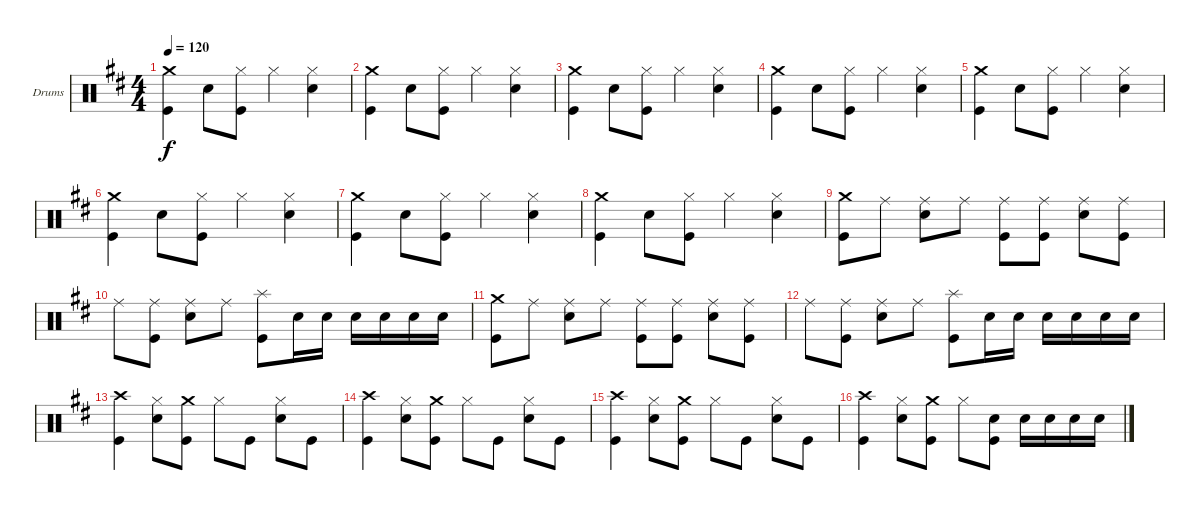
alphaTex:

\defaultSystemsLayout 4
\bracketExtendMode groupsimilarinstruments
\firstSystemTrackNameOrientation horizontal
\otherSystemsTrackNameOrientation horizontal
\track ("Drumkit" "Drums") {instrument percussion}
\staff {score}
\articulation defaults
\ts (4 4)
\tempo 120
\clef neutral
\scale
0.949559
\ks d
("Crash medium (hit)" "Kick (hit)").4{dy f} "Snare (hit) 2".8 ("Hi-Hat (closed)" "Kick (hit)").8 "Hi-Hat (closed)".4 ("Hi-Hat (closed)" "Snare (hit) 2").4 |
\scale
0.949559 ("Crash medium (hit)" "Kick (hit)").4 "Snare (hit) 2".8 ("Hi-Hat (closed)" "Kick (hit)").8 "Hi-Hat (closed)".4 ("Hi-Hat (closed)" "Snare (hit) 2").4 |
\scale
1.10088 ("Crash medium (hit)" "Kick (hit)").4 "Snare (hit) 2".8 ("Hi-Hat (closed)" "Kick (hit)").8 "Hi-Hat (closed)".4 ("Hi-Hat (closed)" "Snare (hit) 2").4 |
\scale
0.949559 ("Crash medium (hit)" "Kick (hit)").4 "Snare (hit) 2".8 ("Hi-Hat (closed)" "Kick (hit)").8 "Hi-Hat (closed)".4 ("Hi-Hat (closed)" "Snare (hit) 2").4 |
\scale
0.949559 ("Crash medium (hit)" "Kick (hit)").4 "Snare (hit) 2".8 ("Hi-Hat (closed)" "Kick (hit)").8 "Hi-Hat (closed)".4 ("Hi-Hat (closed)" "Snare (hit) 2").4 |
\scale
1.10088 ("Crash medium (hit)" "Kick (hit)").4 "Snare (hit) 2".8 ("Hi-Hat (closed)" "Kick (hit)").8 "Hi-Hat (closed)".4 ("Hi-Hat (closed)" "Snare (hit) 2").4 |
\scale
0.949559 ("Crash medium (hit)" "Kick (hit)").4 "Snare (hit) 2".8 ("Hi-Hat (closed)" "Kick (hit)").8 "Hi-Hat (closed)".4 ("Hi-Hat (closed)" "Snare (hit) 2").4 |
\scale
0.949559 ("Crash medium (hit)" "Kick (hit)").4 "Snare (hit) 2".8 ("Hi-Hat (closed)" "Kick (hit)").8 "Hi-Hat (closed)".4 ("Hi-Hat (closed)" "Snare (hit) 2").4 |
\scale
1.10088 ("Crash medium (hit)" "Kick (hit)").8 "Ride (middle)".8 ("Ride (middle)" "Snare (hit) 2").8 "Ride (middle)".8 ("Ride (middle)" "Kick (hit)").8 ("Ride (middle)" "Kick (hit)").8 ("Ride (middle)" "Snare (hit) 2").8 ("Ride (middle)" "Kick (hit)").8 |
\scale
0.949559 "Ride (middle)".8 ("Ride (middle)" "Kick (hit)").8 ("Ride (middle)" "Snare (hit) 2").8 "Ride (middle)".8 ("Splash (hit)" "Kick (hit)").8 "Snare (hit) 2".16 "Snare (hit) 2".16 "Snare (hit) 2".16 "Snare (hit) 2".16 "Snare (hit) 2".16 "Snare (hit) 2".16 |
\scale
0.949559 ("Crash medium (hit)" "Kick (hit)").8 "Ride (middle)".8 ("Ride (middle)" "Snare (hit) 2").8 "Ride (middle)".8 ("Ride (middle)" "Kick (hit)").8 ("Ride (middle)" "Kick (hit)").8 ("Ride (middle)" "Snare (hit) 2").8 ("Ride (middle)" "Kick (hit)").8 |
\scale
1.10088 "Ride (middle)".8 ("Ride (middle)" "Kick (hit)").8 ("Ride (middle)" "Snare (hit) 2").8 "Ride (middle)".8 ("Splash (hit)" "Kick (hit)").8 "Snare (hit) 2".16 "Snare (hit) 2".16 "Snare (hit) 2".16 "Snare (hit) 2".16 "Snare (hit) 2".16 "Snare (hit) 2".16 |
\scale
0.949559 ("Crash high (hit)" "Kick (hit)").4 ("Hi-Hat (closed)" "Snare (hit) 2").8 ("Crash medium (hit)" "Kick (hit)").8 "Hi-Hat (closed)".8 "Kick (hit)".8 ("Hi-Hat (closed)" "Snare (hit) 2").8 "Kick (hit)".8 |
\scale
0.949559 ("Crash high (hit)" "Kick (hit)").4 ("Hi-Hat (closed)" "Snare (hit) 2").8 ("Crash medium (hit)" "Kick (hit)").8 "Hi-Hat (closed)".8 "Kick (hit)".8 ("Hi-Hat (closed)" "Snare (hit) 2").8 "Kick (hit)".8 |
\scale
1.10088 ("Crash high (hit)" "Kick (hit)").4 ("Hi-Hat (closed)" "Snare (hit) 2").8 ("Crash medium (hit)" "Kick (hit)").8 "Hi-Hat (closed)".8 "Kick (hit)".8 ("Hi-Hat (closed)" "Snare (hit) 2").8 "Kick (hit)".8 |
\scale
0.949559 ("Crash high (hit)" "Kick (hit)").4 ("Hi-Hat (closed)" "Snare (hit) 2").8 ("Crash medium (hit)" "Kick (hit)").8 "Hi-Hat (closed)".8 ("Snare (hit) 2" "Kick (hit)").8 "Snare (hit) 2".16 "Snare (hit) 2".16 "Snare (hit) 2".16 "Snare (hit) 2".16
